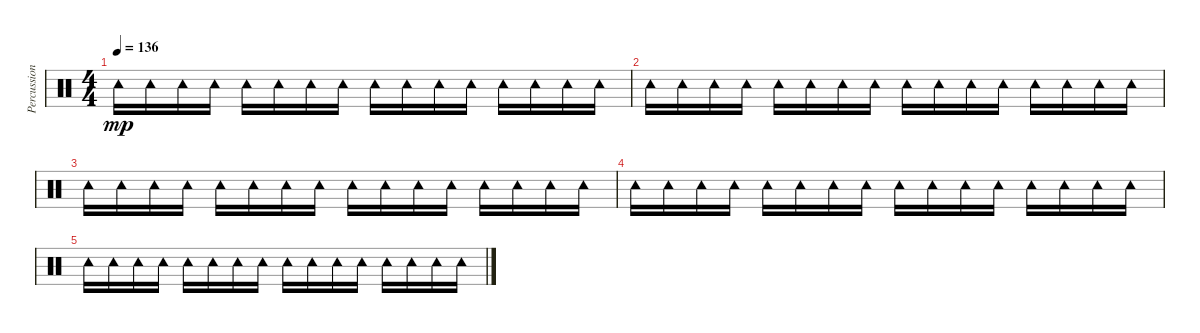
\track ("Percussion" "Percussion") {instrument percussion}
\staff {score}
\articulation defaults
\ts (4 4)
\tempo 136
\clef neutral
\ks c "Tambourine (hit)".16{dy mp} "Tambourine (hit)".16 "Tambourine (hit)".16 "Tambourine (hit)".16 "Tambourine (hit)".16 "Tambourine (hit)".16 "Tambourine (hit)".16 "Tambourine (hit)".16 "Tambourine (hit)".16 "Tambourine (hit)".16 "Tambourine (hit)".16 "Tambourine (hit)".16 "Tambourine (hit)".16 "Tambourine (hit)".16 "Tambourine (hit)".16 "Tambourine (hit)".16
|
"Tambourine (hit)".16 "Tambourine (hit)".16 "Tambourine (hit)".16 "Tambourine (hit)".16 "Tambourine (hit)".16 "Tambourine (hit)".16 "Tambourine (hit)".16 "Tambourine (hit)".16 "Tambourine (hit)".16 "Tambourine (hit)".16 "Tambourine (hit)".16 "Tambourine (hit)".16 "Tambourine (hit)".16 "Tambourine (hit)".16 "Tambourine (hit)".16 "Tambourine (hit)".16 |
"Tambourine (hit)".16 "Tambourine (hit)".16 "Tambourine (hit)".16 "Tambourine (hit)".16 "Tambourine (hit)".16 "Tambourine (hit)".16 "Tambourine (hit)".16 "Tambourine (hit)".16 "Tambourine (hit)".16 "Tambourine (hit)".16 "Tambourine (hit)".16 "Tambourine (hit)".16 "Tambourine (hit)".16 "Tambourine (hit)".16 "Tambourine (hit)".16 "Tambourine (hit)".16 |
"Tambourine (hit)".16 "Tambourine (hit)".16 "Tambourine (hit)".16 "Tambourine (hit)".16 "Tambourine (hit)".16 "Tambourine (hit)".16 "Tambourine (hit)".16 "Tambourine (hit)".16 "Tambourine (hit)".16 "Tambourine (hit)".16 "Tambourine (hit)".16 "Tambourine (hit)".16 "Tambourine (hit)".16 "Tambourine (hit)".16 "Tambourine (hit)".16 "Tambourine (hit)".16 |
"Tambourine (hit)".16 "Tambourine (hit)".16 "Tambourine (hit)".16 "Tambourine (hit)".16 "Tambourine (hit)".16 "Tambourine (hit)".16 "Tambourine (hit)".16 "Tambourine (hit)".16 "Tambourine (hit)".16 "Tambourine (hit)".16 "Tambourine (hit)".16 "Tambourine (hit)".16 "Tambourine (hit)".16 "Tambourine (hit)".16 "Tambourine (hit)".16 "Tambourine (hit)".16
